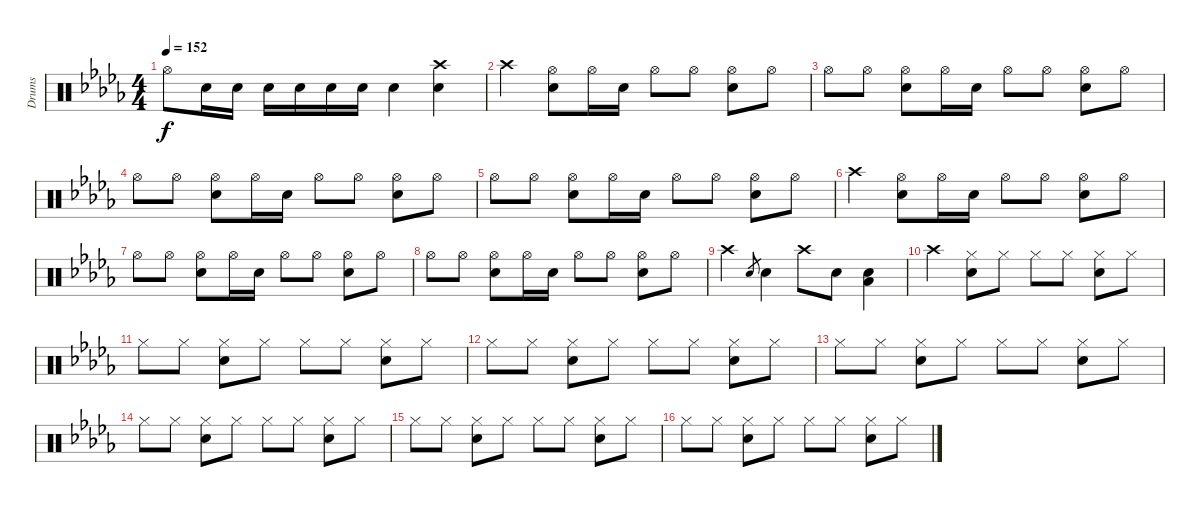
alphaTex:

\track ("Drums" "Drums") {instrument percussion}
\staff {score}
\articulation defaults
\ts (4 4)
\tempo 152
\clef neutral
\ks db "Hi-Hat (open)".8{dy f} "Snare (hit) 2".16 "Snare (hit) 2".16 "Snare (hit) 2".16 "Snare (hit) 2".16 "Snare (hit) 2".16 "Snare (hit) 2".16 "Snare (hit) 2".4
("Crash high (hit)" "Snare (hit) 2").4 |
"Crash high (hit)".4 ("Hi-Hat (open)" "Snare (hit) 2").8 "Hi-Hat (open)".16 "Snare (hit) 2".16 "Hi-Hat (open)".8 "Hi-Hat (open)".8 ("Hi-Hat (open)" "Snare (hit) 2").8 "Hi-Hat (open)".8 |
"Hi-Hat (open)".8 "Hi-Hat (open)".8 ("Hi-Hat (open)" "Snare (hit) 2").8 "Hi-Hat (open)".16 "Snare (hit) 2".16 "Hi-Hat (open)".8 "Hi-Hat (open)".8 ("Hi-Hat (open)" "Snare (hit) 2").8 "Hi-Hat (open)".8 |
"Hi-Hat (open)".8 "Hi-Hat (open)".8 ("Hi-Hat (open)" "Snare (hit) 2").8 "Hi-Hat (open)".16 "Snare (hit) 2".16 "Hi-Hat (open)".8 "Hi-Hat (open)".8 ("Hi-Hat (open)" "Snare (hit) 2").8 "Hi-Hat (open)".8 |
"Hi-Hat (open)".8 "Hi-Hat (open)".8 ("Hi-Hat (open)" "Snare (hit) 2").8 "Hi-Hat (open)".16 "Snare (hit) 2".16 "Hi-Hat (open)".8 "Hi-Hat (open)".8 ("Hi-Hat (open)" "Snare (hit) 2").8 "Hi-Hat (open)".8 |
"Crash high (hit)".4 ("Hi-Hat (open)" "Snare (hit) 2").8 "Hi-Hat (open)".16 "Snare (hit) 2".16 "Hi-Hat (open)".8 "Hi-Hat (open)".8 ("Hi-Hat (open)" "Snare (hit) 2").8 "Hi-Hat (open)".8 |
"Hi-Hat (open)".8 "Hi-Hat (open)".8 ("Hi-Hat (open)" "Snare (hit) 2").8 "Hi-Hat (open)".16 "Snare (hit) 2".16 "Hi-Hat (open)".8 "Hi-Hat (open)".8 ("Hi-Hat (open)" "Snare (hit) 2").8 "Hi-Hat (open)".8 |
"Hi-Hat (open)".8 "Hi-Hat (open)".8 ("Hi-Hat (open)" "Snare (hit) 2").8 "Hi-Hat (open)".16 "Snare (hit) 2".16 "Hi-Hat (open)".8 "Hi-Hat (open)".8 ("Hi-Hat (open)" "Snare (hit) 2").8 "Hi-Hat (open)".8 |
"Crash high (hit)".4 "Snare (hit) 2".8{gr} "Snare (hit) 2".4 "Crash high (hit)".8 "Snare (hit) 2".8 ("Snare (hit) 2" "Low Tom (hit)").4 |
"Crash high (hit)".4 ("Hi-Hat (closed)" "Snare (hit) 2").8 "Hi-Hat (closed)".8 "Hi-Hat (closed)".8 "Hi-Hat (closed)".8 ("Hi-Hat (closed)" "Snare (hit) 2").8 "Hi-Hat (closed)".8 |
"Hi-Hat (closed)".8 "Hi-Hat (closed)".8 ("Hi-Hat (closed)" "Snare (hit) 2").8 "Hi-Hat (closed)".8 "Hi-Hat (closed)".8 "Hi-Hat (closed)".8 ("Hi-Hat (closed)" "Snare (hit) 2").8 "Hi-Hat (closed)".8 |
"Hi-Hat (closed)".8 "Hi-Hat (closed)".8 ("Hi-Hat (closed)" "Snare (hit) 2").8 "Hi-Hat (closed)".8 "Hi-Hat (closed)".8 "Hi-Hat (closed)".8 ("Hi-Hat (closed)" "Snare (hit) 2").8 "Hi-Hat (closed)".8 |
"Hi-Hat (closed)".8 "Hi-Hat (closed)".8 ("Hi-Hat (closed)" "Snare (hit) 2").8 "Hi-Hat (closed)".8 "Hi-Hat (closed)".8 "Hi-Hat (closed)".8 ("Hi-Hat (closed)" "Snare (hit) 2").8 "Hi-Hat (closed)".8 |
"Hi-Hat (closed)".8 "Hi-Hat (closed)".8 ("Hi-Hat (closed)" "Snare (hit) 2").8 "Hi-Hat (closed)".8 "Hi-Hat (closed)".8 "Hi-Hat (closed)".8 ("Hi-Hat (closed)" "Snare (hit) 2").8 "Hi-Hat (closed)".8 |
"Hi-Hat (closed)".8 "Hi-Hat (closed)".8 ("Hi-Hat (closed)" "Snare (hit) 2").8 "Hi-Hat (closed)".8 "Hi-Hat (closed)".8 "Hi-Hat (closed)".8 ("Hi-Hat (closed)" "Snare (hit) 2").8 "Hi-Hat (closed)".8 |
"Hi-Hat (closed)".8 "Hi-Hat (closed)".8 ("Hi-Hat (closed)" "Snare (hit) 2").8 "Hi-Hat (closed)".8 "Hi-Hat (closed)".8 "Hi-Hat (closed)".8 ("Hi-Hat (closed)" "Snare (hit) 2").8 "Hi-Hat (closed)".8
